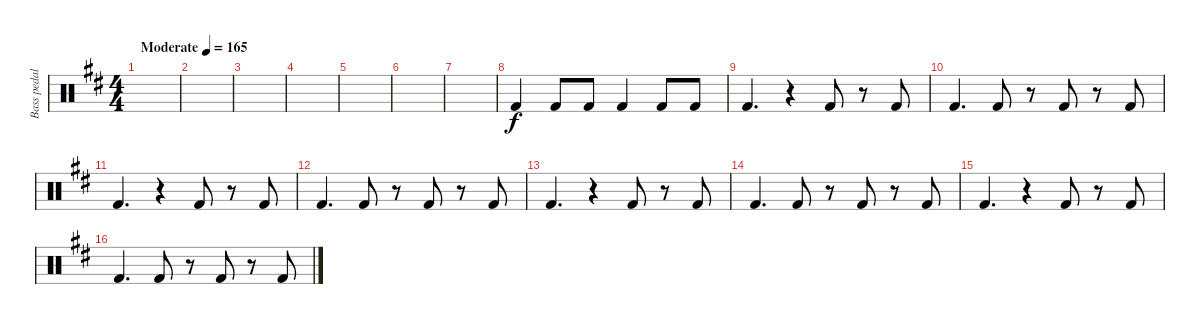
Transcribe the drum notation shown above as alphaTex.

\track ("Bass pedal" "Bass pedal") {instrument percussion}
\staff {score}
\articulation defaults
\ts (4 4)
\tempo (165 "Moderate")
\clef neutral
\ks d
|
|
|
|
|
|
|
"Kick (hit) 2".4 "Kick (hit) 2".8 "Kick (hit) 2".8 "Kick (hit) 2".4 "Kick (hit) 2".8 "Kick (hit) 2".8 |
"Kick (hit) 2".4{d} r.4 "Kick (hit) 2".8 r.8 "Kick (hit) 2".8 |
"Kick (hit) 2".4{d} "Kick (hit) 2".8 r.8 "Kick (hit) 2".8 r.8 "Kick (hit) 2".8 |
"Kick (hit) 2".4{d} r.4 "Kick (hit) 2".8 r.8 "Kick (hit) 2".8 |
"Kick (hit) 2".4{d} "Kick (hit) 2".8 r.8 "Kick (hit) 2".8 r.8 "Kick (hit) 2".8 |
"Kick (hit) 2".4{d} r.4 "Kick (hit) 2".8 r.8 "Kick (hit) 2".8 |
"Kick (hit) 2".4{d} "Kick (hit) 2".8 r.8 "Kick (hit) 2".8 r.8 "Kick (hit) 2".8 |
"Kick (hit) 2".4{d} r.4 "Kick (hit) 2".8 r.8 "Kick (hit) 2".8 |
"Kick (hit) 2".4{d} "Kick (hit) 2".8 r.8 "Kick (hit) 2".8 r.8 "Kick (hit) 2".8
